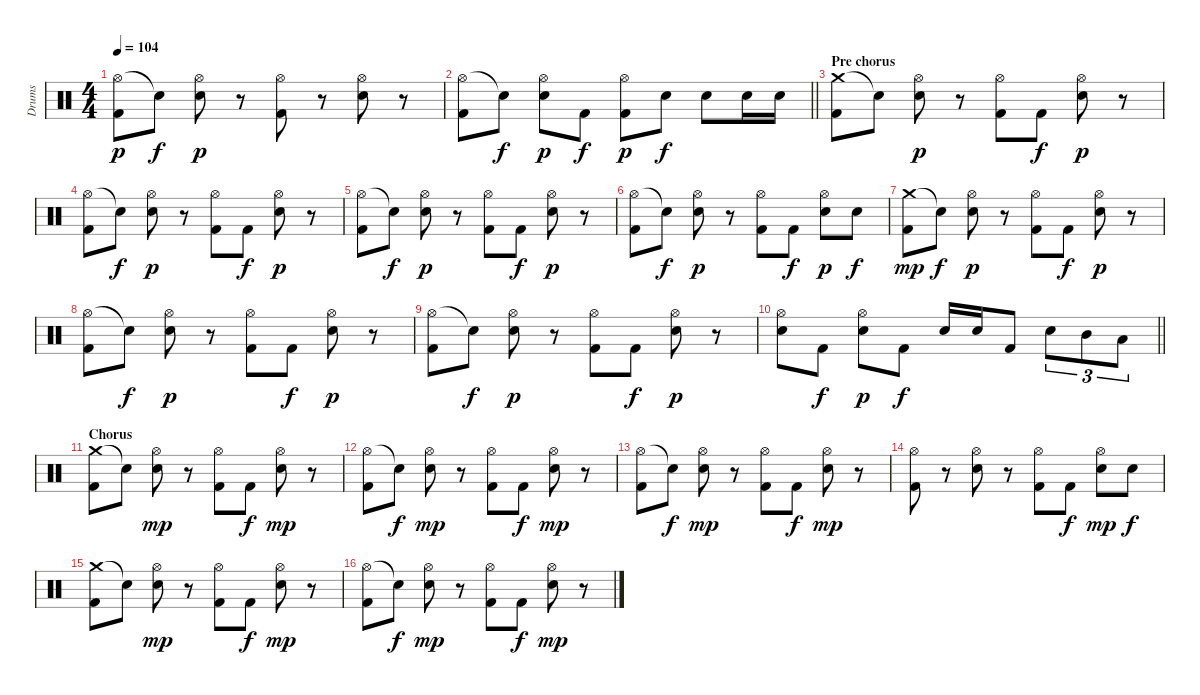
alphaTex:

\track ("Drums" "Drums") {instrument percussion}
\staff {score}
\articulation defaults
\ts (4 4)
\tempo 104
\clef neutral
\ks c
("Hi-Hat (open)" "Kick (hit) 2").8{dy p} "Snare (hit)"{t}.8{dy f} ("Hi-Hat (open)" "Electric Snare (hit)").8{dy p} r.8 ("Hi-Hat (open)" "Kick (hit) 2").8 r.8 ("Hi-Hat (open)" "Electric Snare (hit)").8 r.8 |
\barLineRight lightlight
("Hi-Hat (open)" "Kick (hit) 2").8 "Snare (hit)"{t}.8{dy f} ("Hi-Hat (open)" "Electric Snare (hit)").8{dy p} "Kick (hit) 2".8{dy f} ("Hi-Hat (open)" "Kick (hit) 2").8{dy p} "Electric Snare (hit)".8{dy f} "Electric Snare (hit)".8 "Electric Snare (hit)".16 "Electric Snare (hit)".16 |
\section ("" "Pre chorus")
("Crash medium (hit)" "Kick (hit) 2").8 "Snare (hit)"{t}.8 ("Hi-Hat (open)" "Electric Snare (hit)").8{dy p} r.8 ("Hi-Hat (open)" "Kick (hit) 2").8 "Kick (hit) 2".8{dy f} ("Hi-Hat (open)" "Electric Snare (hit)").8{dy p} r.8 |
("Hi-Hat (open)" "Kick (hit) 2").8 "Snare (hit)"{t}.8{dy f} ("Hi-Hat (open)" "Electric Snare (hit)").8{dy p} r.8 ("Hi-Hat (open)" "Kick (hit) 2").8 "Kick (hit) 2".8{dy f} ("Hi-Hat (open)" "Electric Snare (hit)").8{dy p} r.8 |
("Hi-Hat (open)" "Kick (hit) 2").8 "Snare (hit)"{t}.8{dy f} ("Hi-Hat (open)" "Electric Snare (hit)").8{dy p} r.8 ("Hi-Hat (open)" "Kick (hit) 2").8 "Kick (hit) 2".8{dy f} ("Hi-Hat (open)" "Electric Snare (hit)").8{dy p} r.8 |
("Hi-Hat (open)" "Kick (hit) 2").8 "Snare (hit)"{t}.8{dy f} ("Hi-Hat (open)" "Electric Snare (hit)").8{dy p} r.8 ("Hi-Hat (open)" "Kick (hit) 2").8 "Kick (hit) 2".8{dy f} ("Hi-Hat (open)" "Electric Snare (hit)").8{dy p} "Electric Snare (hit)".8{dy f} |
("Crash medium (hit)" "Kick (hit) 2").8{dy mp} "Snare (hit)"{t}.8{dy f} ("Hi-Hat (open)" "Electric Snare (hit)").8{dy p} r.8 ("Hi-Hat (open)" "Kick (hit) 2").8 "Kick (hit) 2".8{dy f} ("Hi-Hat (open)" "Electric Snare (hit)").8{dy p} r.8 |
("Hi-Hat (open)" "Kick (hit) 2").8 "Snare (hit)"{t}.8{dy f} ("Hi-Hat (open)" "Electric Snare (hit)").8{dy p} r.8 ("Hi-Hat (open)" "Kick (hit) 2").8 "Kick (hit) 2".8{dy f} ("Hi-Hat (open)" "Electric Snare (hit)").8{dy p} r.8 |
("Hi-Hat (open)" "Kick (hit) 2").8 "Snare (hit)"{t}.8{dy f} ("Hi-Hat (open)" "Electric Snare (hit)").8{dy p} r.8 ("Hi-Hat (open)" "Kick (hit) 2").8 "Kick (hit) 2".8{dy f} ("Hi-Hat (open)" "Electric Snare (hit)").8{dy p} r.8 |
\barLineRight lightlight
("Hi-Hat (open)" "Electric Snare (hit)").8 "Kick (hit) 2".8{dy f} ("Hi-Hat (open)" "Electric Snare (hit)").8{dy p} "Kick (hit) 2".8{dy f} "Electric Snare (hit)".16 "Electric Snare (hit)".16 "Kick (hit) 2".8 "Electric Snare (hit)".8{tu (3 2)} "Mid Tom (hit)".8{tu (3 2)} "Low Tom (hit)".8{tu (3 2)} |
\section ("" "Chorus")
("Crash medium (hit)" "Kick (hit) 2").8 "Snare (hit)"{t}.8 ("Hi-Hat (open)" "Electric Snare (hit)").8{dy mp} r.8 ("Hi-Hat (open)" "Kick (hit) 2").8 "Kick (hit) 2".8{dy f} ("Hi-Hat (open)" "Electric Snare (hit)").8{dy mp} r.8 |
("Hi-Hat (open)" "Kick (hit) 2").8 "Snare (hit)"{t}.8{dy f} ("Hi-Hat (open)" "Electric Snare (hit)").8{dy mp} r.8 ("Hi-Hat (open)" "Kick (hit) 2").8 "Kick (hit) 2".8{dy f} ("Hi-Hat (open)" "Electric Snare (hit)").8{dy mp} r.8 |
("Hi-Hat (open)" "Kick (hit) 2").8 "Snare (hit)"{t}.8{dy f} ("Hi-Hat (open)" "Electric Snare (hit)").8{dy mp} r.8 ("Hi-Hat (open)" "Kick (hit) 2").8 "Kick (hit) 2".8{dy f} ("Hi-Hat (open)" "Electric Snare (hit)").8{dy mp} r.8 |
("Hi-Hat (open)" "Kick (hit) 2").8 r.8 ("Hi-Hat (open)" "Electric Snare (hit)").8 r.8 ("Hi-Hat (open)" "Kick (hit) 2").8 "Kick (hit) 2".8{dy f} ("Hi-Hat (open)" "Electric Snare (hit)").8{dy mp} "Electric Snare (hit)".8{dy f} |
("Crash medium (hit)" "Kick (hit) 2").8 "Snare (hit)"{t}.8 ("Hi-Hat (open)" "Electric Snare (hit)").8{dy mp} r.8 ("Hi-Hat (open)" "Kick (hit) 2").8 "Kick (hit) 2".8{dy f} ("Hi-Hat (open)" "Electric Snare (hit)").8{dy mp} r.8 |
("Hi-Hat (open)" "Kick (hit) 2").8 "Snare (hit)"{t}.8{dy f} ("Hi-Hat (open)" "Electric Snare (hit)").8{dy mp} r.8 ("Hi-Hat (open)" "Kick (hit) 2").8 "Kick (hit) 2".8{dy f} ("Hi-Hat (open)" "Electric Snare (hit)").8{dy mp} r.8
